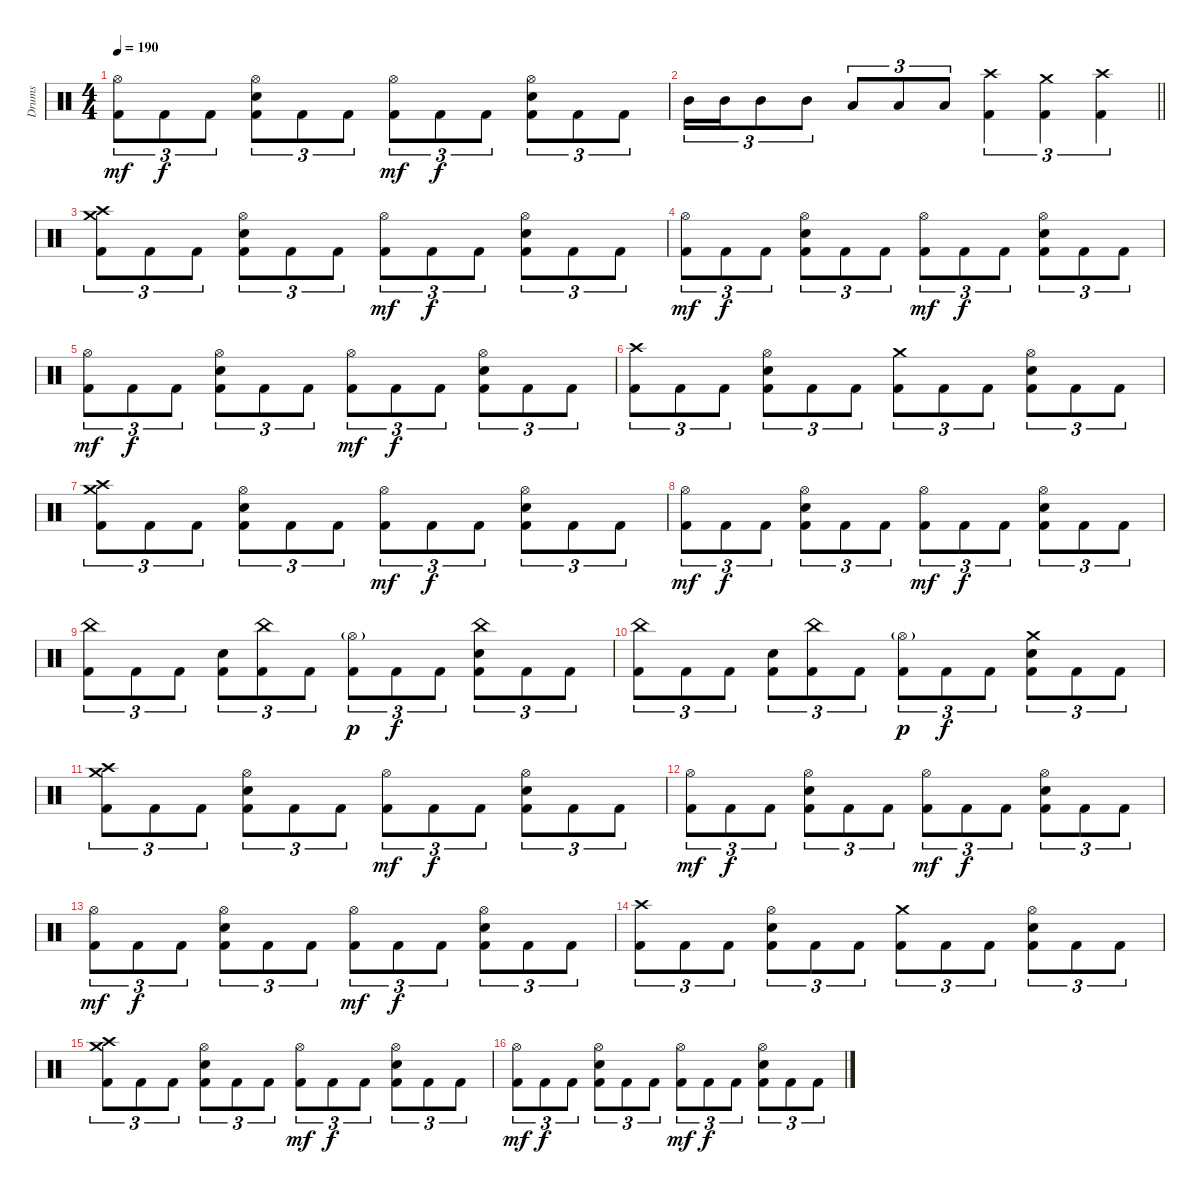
\track ("Drums" "Drums") {instrument percussion}
\staff {score}
\articulation defaults
\ts (4 4)
\tempo 190
\clef neutral
\ks c
("Hi-Hat (open)" "Kick (hit) 2").8{tu (3 2) dy mf} "Kick (hit) 2".8{tu (3 2) dy f} "Kick (hit) 2".8{tu (3 2)} ("Hi-Hat (open)" "Electric Snare (hit)" "Kick (hit) 2").8{tu (3 2)} "Kick (hit) 2".8{tu (3 2)} "Kick (hit) 2".8{tu (3 2)} ("Hi-Hat (open)" "Kick (hit) 2").8{tu (3 2) dy mf} "Kick (hit) 2".8{tu (3 2) dy f} "Kick (hit) 2".8{tu (3 2)} ("Hi-Hat (open)" "Electric Snare (hit)" "Kick (hit) 2").8{tu (3 2)} "Kick (hit) 2".8{tu (3 2)} "Kick (hit) 2".8{tu (3 2)} |
\barLineRight lightlight "Mid Tom (hit)".16{tu (3 2)} "Mid Tom (hit)".16{tu (3 2)} "Mid Tom (hit)".8{tu (3 2)} "Mid Tom (hit)".8{tu (3 2)} "Low Tom (hit)".8{tu (3 2)} "Low Tom (hit)".8{tu (3 2)} "Low Tom (hit)".8{tu (3 2)}
("Crash high (hit)" "Kick (hit) 2").4{tu (3 2)} ("Crash medium (hit)" "Kick (hit) 2").4{tu (3 2)} ("Crash high (hit)" "Kick (hit) 2").4{tu (3 2)} |
("Crash high (hit)" "Crash medium (hit)" "Kick (hit) 2").8{tu (3 2)} "Kick (hit) 2".8{tu (3 2)} "Kick (hit) 2".8{tu (3 2)} ("Hi-Hat (open)" "Electric Snare (hit)" "Kick (hit) 2").8{tu (3 2)} "Kick (hit) 2".8{tu (3 2)} "Kick (hit) 2".8{tu (3 2)} ("Hi-Hat (open)" "Kick (hit) 2").8{tu (3 2) dy mf} "Kick (hit) 2".8{tu (3 2) dy f} "Kick (hit) 2".8{tu (3 2)} ("Hi-Hat (open)" "Electric Snare (hit)" "Kick (hit) 2").8{tu (3 2)} "Kick (hit) 2".8{tu (3 2)} "Kick (hit) 2".8{tu (3 2)} |
("Hi-Hat (open)" "Kick (hit) 2").8{tu (3 2) dy mf} "Kick (hit) 2".8{tu (3 2) dy f} "Kick (hit) 2".8{tu (3 2)} ("Hi-Hat (open)" "Electric Snare (hit)" "Kick (hit) 2").8{tu (3 2)} "Kick (hit) 2".8{tu (3 2)} "Kick (hit) 2".8{tu (3 2)} ("Hi-Hat (open)" "Kick (hit) 2").8{tu (3 2) dy mf} "Kick (hit) 2".8{tu (3 2) dy f} "Kick (hit) 2".8{tu (3 2)} ("Hi-Hat (open)" "Electric Snare (hit)" "Kick (hit) 2").8{tu (3 2)} "Kick (hit) 2".8{tu (3 2)} "Kick (hit) 2".8{tu (3 2)} |
("Hi-Hat (open)" "Kick (hit) 2").8{tu (3 2) dy mf} "Kick (hit) 2".8{tu (3 2) dy f} "Kick (hit) 2".8{tu (3 2)} ("Hi-Hat (open)" "Electric Snare (hit)" "Kick (hit) 2").8{tu (3 2)} "Kick (hit) 2".8{tu (3 2)} "Kick (hit) 2".8{tu (3 2)} ("Hi-Hat (open)" "Kick (hit) 2").8{tu (3 2) dy mf} "Kick (hit) 2".8{tu (3 2) dy f} "Kick (hit) 2".8{tu (3 2)} ("Hi-Hat (open)" "Electric Snare (hit)" "Kick (hit) 2").8{tu (3 2)} "Kick (hit) 2".8{tu (3 2)} "Kick (hit) 2".8{tu (3 2)} |
("Crash high (hit)" "Kick (hit) 2").8{tu (3 2)} "Kick (hit) 2".8{tu (3 2)} "Kick (hit) 2".8{tu (3 2)} ("Hi-Hat (open)" "Electric Snare (hit)" "Kick (hit) 2").8{tu (3 2)} "Kick (hit) 2".8{tu (3 2)} "Kick (hit) 2".8{tu (3 2)} ("Crash medium (hit)" "Kick (hit) 2").8{tu (3 2)} "Kick (hit) 2".8{tu (3 2)} "Kick (hit) 2".8{tu (3 2)} ("Hi-Hat (open)" "Electric Snare (hit)" "Kick (hit) 2").8{tu (3 2)} "Kick (hit) 2".8{tu (3 2)} "Kick (hit) 2".8{tu (3 2)} |
("Crash high (hit)" "Crash medium (hit)" "Kick (hit) 2").8{tu (3 2)} "Kick (hit) 2".8{tu (3 2)} "Kick (hit) 2".8{tu (3 2)} ("Hi-Hat (open)" "Electric Snare (hit)" "Kick (hit) 2").8{tu (3 2)} "Kick (hit) 2".8{tu (3 2)} "Kick (hit) 2".8{tu (3 2)} ("Hi-Hat (open)" "Kick (hit) 2").8{tu (3 2) dy mf} "Kick (hit) 2".8{tu (3 2) dy f} "Kick (hit) 2".8{tu (3 2)} ("Hi-Hat (open)" "Electric Snare (hit)" "Kick (hit) 2").8{tu (3 2)} "Kick (hit) 2".8{tu (3 2)} "Kick (hit) 2".8{tu (3 2)} |
("Hi-Hat (open)" "Kick (hit) 2").8{tu (3 2) dy mf} "Kick (hit) 2".8{tu (3 2) dy f} "Kick (hit) 2".8{tu (3 2)} ("Hi-Hat (open)" "Electric Snare (hit)" "Kick (hit) 2").8{tu (3 2)} "Kick (hit) 2".8{tu (3 2)} "Kick (hit) 2".8{tu (3 2)} ("Hi-Hat (open)" "Kick (hit) 2").8{tu (3 2) dy mf} "Kick (hit) 2".8{tu (3 2) dy f} "Kick (hit) 2".8{tu (3 2)} ("Hi-Hat (open)" "Electric Snare (hit)" "Kick (hit) 2").8{tu (3 2)} "Kick (hit) 2".8{tu (3 2)} "Kick (hit) 2".8{tu (3 2)} |
("China (hit)" "Kick (hit) 2").8{tu (3 2)} "Kick (hit) 2".8{tu (3 2)} "Kick (hit) 2".8{tu (3 2)} ("Electric Snare (hit)" "Kick (hit) 2").8{tu (3 2)} ("China (hit)" "Kick (hit) 2").8{tu (3 2)} "Kick (hit) 2".8{tu (3 2)} ("Hi-Hat (open)"{g} "Kick (hit) 2").8{tu (3 2) dy p} "Kick (hit) 2".8{tu (3 2) dy f} "Kick (hit) 2".8{tu (3 2)} ("China (hit)" "Electric Snare (hit)" "Kick (hit) 2").8{tu (3 2)} "Kick (hit) 2".8{tu (3 2)} "Kick (hit) 2".8{tu (3 2)} |
("China (hit)" "Kick (hit) 2").8{tu (3 2)} "Kick (hit) 2".8{tu (3 2)} "Kick (hit) 2".8{tu (3 2)} ("Electric Snare (hit)" "Kick (hit) 2").8{tu (3 2)} ("China (hit)" "Kick (hit) 2").8{tu (3 2)} "Kick (hit) 2".8{tu (3 2)} ("Hi-Hat (open)"{g} "Kick (hit) 2").8{tu (3 2) dy p} "Kick (hit) 2".8{tu (3 2) dy f} "Kick (hit) 2".8{tu (3 2)} ("Crash medium (hit)" "Electric Snare (hit)" "Kick (hit) 2").8{tu (3 2)} "Kick (hit) 2".8{tu (3 2)} "Kick (hit) 2".8{tu (3 2)} |
("Crash high (hit)" "Crash medium (hit)" "Kick (hit) 2").8{tu (3 2)} "Kick (hit) 2".8{tu (3 2)} "Kick (hit) 2".8{tu (3 2)} ("Hi-Hat (open)" "Electric Snare (hit)" "Kick (hit) 2").8{tu (3 2)} "Kick (hit) 2".8{tu (3 2)} "Kick (hit) 2".8{tu (3 2)} ("Hi-Hat (open)" "Kick (hit) 2").8{tu (3 2) dy mf} "Kick (hit) 2".8{tu (3 2) dy f} "Kick (hit) 2".8{tu (3 2)} ("Hi-Hat (open)" "Electric Snare (hit)" "Kick (hit) 2").8{tu (3 2)} "Kick (hit) 2".8{tu (3 2)} "Kick (hit) 2".8{tu (3 2)} |
("Hi-Hat (open)" "Kick (hit) 2").8{tu (3 2) dy mf} "Kick (hit) 2".8{tu (3 2) dy f} "Kick (hit) 2".8{tu (3 2)} ("Hi-Hat (open)" "Electric Snare (hit)" "Kick (hit) 2").8{tu (3 2)} "Kick (hit) 2".8{tu (3 2)} "Kick (hit) 2".8{tu (3 2)} ("Hi-Hat (open)" "Kick (hit) 2").8{tu (3 2) dy mf} "Kick (hit) 2".8{tu (3 2) dy f} "Kick (hit) 2".8{tu (3 2)} ("Hi-Hat (open)" "Electric Snare (hit)" "Kick (hit) 2").8{tu (3 2)} "Kick (hit) 2".8{tu (3 2)} "Kick (hit) 2".8{tu (3 2)} |
("Hi-Hat (open)" "Kick (hit) 2").8{tu (3 2) dy mf} "Kick (hit) 2".8{tu (3 2) dy f} "Kick (hit) 2".8{tu (3 2)} ("Hi-Hat (open)" "Electric Snare (hit)" "Kick (hit) 2").8{tu (3 2)} "Kick (hit) 2".8{tu (3 2)} "Kick (hit) 2".8{tu (3 2)} ("Hi-Hat (open)" "Kick (hit) 2").8{tu (3 2) dy mf} "Kick (hit) 2".8{tu (3 2) dy f} "Kick (hit) 2".8{tu (3 2)} ("Hi-Hat (open)" "Electric Snare (hit)" "Kick (hit) 2").8{tu (3 2)} "Kick (hit) 2".8{tu (3 2)} "Kick (hit) 2".8{tu (3 2)} |
("Crash high (hit)" "Kick (hit) 2").8{tu (3 2)} "Kick (hit) 2".8{tu (3 2)} "Kick (hit) 2".8{tu (3 2)} ("Hi-Hat (open)" "Electric Snare (hit)" "Kick (hit) 2").8{tu (3 2)} "Kick (hit) 2".8{tu (3 2)} "Kick (hit) 2".8{tu (3 2)} ("Crash medium (hit)" "Kick (hit) 2").8{tu (3 2)} "Kick (hit) 2".8{tu (3 2)} "Kick (hit) 2".8{tu (3 2)} ("Hi-Hat (open)" "Electric Snare (hit)" "Kick (hit) 2").8{tu (3 2)} "Kick (hit) 2".8{tu (3 2)} "Kick (hit) 2".8{tu (3 2)} |
("Crash high (hit)" "Crash medium (hit)" "Kick (hit) 2").8{tu (3 2)} "Kick (hit) 2".8{tu (3 2)} "Kick (hit) 2".8{tu (3 2)} ("Hi-Hat (open)" "Electric Snare (hit)" "Kick (hit) 2").8{tu (3 2)} "Kick (hit) 2".8{tu (3 2)} "Kick (hit) 2".8{tu (3 2)} ("Hi-Hat (open)" "Kick (hit) 2").8{tu (3 2) dy mf} "Kick (hit) 2".8{tu (3 2) dy f} "Kick (hit) 2".8{tu (3 2)} ("Hi-Hat (open)" "Electric Snare (hit)" "Kick (hit) 2").8{tu (3 2)} "Kick (hit) 2".8{tu (3 2)} "Kick (hit) 2".8{tu (3 2)} |
("Hi-Hat (open)" "Kick (hit) 2").8{tu (3 2) dy mf} "Kick (hit) 2".8{tu (3 2) dy f} "Kick (hit) 2".8{tu (3 2)} ("Hi-Hat (open)" "Electric Snare (hit)" "Kick (hit) 2").8{tu (3 2)} "Kick (hit) 2".8{tu (3 2)} "Kick (hit) 2".8{tu (3 2)} ("Hi-Hat (open)" "Kick (hit) 2").8{tu (3 2) dy mf} "Kick (hit) 2".8{tu (3 2) dy f} "Kick (hit) 2".8{tu (3 2)} ("Hi-Hat (open)" "Electric Snare (hit)" "Kick (hit) 2").8{tu (3 2)} "Kick (hit) 2".8{tu (3 2)} "Kick (hit) 2".8{tu (3 2)}
